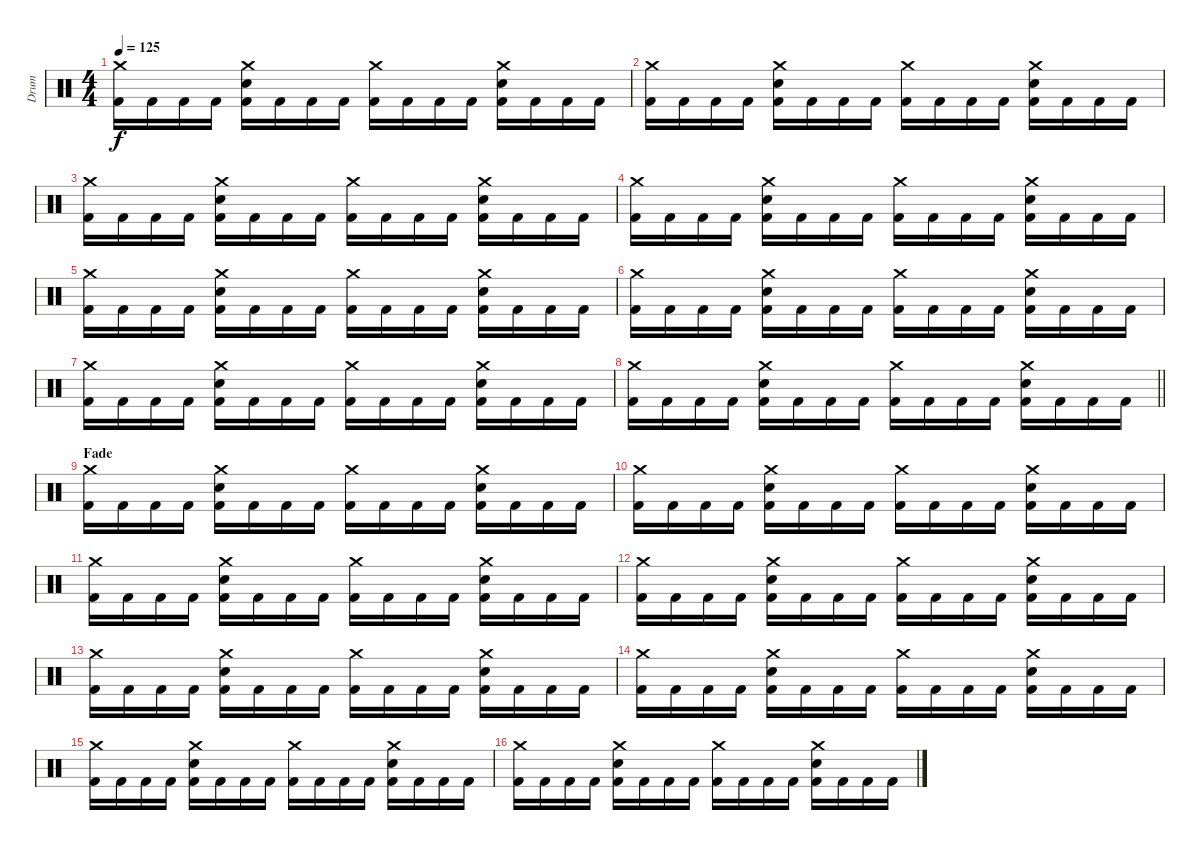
\track ("Drum" "Drum") {instrument percussion}
\staff {score}
\articulation defaults
\ts (4 4)
\tempo 125
\clef neutral
\ks c
("Crash medium (hit)" "Kick (hit) 2").16{dy f} "Kick (hit) 2".16 "Kick (hit) 2".16 "Kick (hit) 2".16 ("Crash medium (hit)" "Electric Snare (hit)" "Kick (hit) 2").16 "Kick (hit) 2".16 "Kick (hit) 2".16 "Kick (hit) 2".16 ("Crash medium (hit)" "Kick (hit) 2").16 "Kick (hit) 2".16 "Kick (hit) 2".16 "Kick (hit) 2".16 ("Crash medium (hit)" "Electric Snare (hit)" "Kick (hit) 2").16 "Kick (hit) 2".16 "Kick (hit) 2".16 "Kick (hit) 2".16 |
("Crash medium (hit)" "Kick (hit) 2").16 "Kick (hit) 2".16 "Kick (hit) 2".16 "Kick (hit) 2".16 ("Crash medium (hit)" "Electric Snare (hit)" "Kick (hit) 2").16 "Kick (hit) 2".16 "Kick (hit) 2".16 "Kick (hit) 2".16 ("Crash medium (hit)" "Kick (hit) 2").16 "Kick (hit) 2".16 "Kick (hit) 2".16 "Kick (hit) 2".16 ("Crash medium (hit)" "Electric Snare (hit)" "Kick (hit) 2").16 "Kick (hit) 2".16 "Kick (hit) 2".16 "Kick (hit) 2".16 |
("Crash medium (hit)" "Kick (hit) 2").16 "Kick (hit) 2".16 "Kick (hit) 2".16 "Kick (hit) 2".16 ("Crash medium (hit)" "Electric Snare (hit)" "Kick (hit) 2").16 "Kick (hit) 2".16 "Kick (hit) 2".16 "Kick (hit) 2".16 ("Crash medium (hit)" "Kick (hit) 2").16 "Kick (hit) 2".16 "Kick (hit) 2".16 "Kick (hit) 2".16 ("Crash medium (hit)" "Electric Snare (hit)" "Kick (hit) 2").16 "Kick (hit) 2".16 "Kick (hit) 2".16 "Kick (hit) 2".16 |
("Crash medium (hit)" "Kick (hit) 2").16 "Kick (hit) 2".16 "Kick (hit) 2".16 "Kick (hit) 2".16 ("Crash medium (hit)" "Electric Snare (hit)" "Kick (hit) 2").16 "Kick (hit) 2".16 "Kick (hit) 2".16 "Kick (hit) 2".16 ("Crash medium (hit)" "Kick (hit) 2").16 "Kick (hit) 2".16 "Kick (hit) 2".16 "Kick (hit) 2".16 ("Crash medium (hit)" "Electric Snare (hit)" "Kick (hit) 2").16 "Kick (hit) 2".16 "Kick (hit) 2".16 "Kick (hit) 2".16 |
("Crash medium (hit)" "Kick (hit) 2").16 "Kick (hit) 2".16 "Kick (hit) 2".16 "Kick (hit) 2".16 ("Crash medium (hit)" "Electric Snare (hit)" "Kick (hit) 2").16 "Kick (hit) 2".16 "Kick (hit) 2".16 "Kick (hit) 2".16 ("Crash medium (hit)" "Kick (hit) 2").16 "Kick (hit) 2".16 "Kick (hit) 2".16 "Kick (hit) 2".16 ("Crash medium (hit)" "Electric Snare (hit)" "Kick (hit) 2").16 "Kick (hit) 2".16 "Kick (hit) 2".16 "Kick (hit) 2".16 |
("Crash medium (hit)" "Kick (hit) 2").16 "Kick (hit) 2".16 "Kick (hit) 2".16 "Kick (hit) 2".16 ("Crash medium (hit)" "Electric Snare (hit)" "Kick (hit) 2").16 "Kick (hit) 2".16 "Kick (hit) 2".16 "Kick (hit) 2".16 ("Crash medium (hit)" "Kick (hit) 2").16 "Kick (hit) 2".16 "Kick (hit) 2".16 "Kick (hit) 2".16 ("Crash medium (hit)" "Electric Snare (hit)" "Kick (hit) 2").16 "Kick (hit) 2".16 "Kick (hit) 2".16 "Kick (hit) 2".16 |
("Crash medium (hit)" "Kick (hit) 2").16 "Kick (hit) 2".16 "Kick (hit) 2".16 "Kick (hit) 2".16 ("Crash medium (hit)" "Electric Snare (hit)" "Kick (hit) 2").16 "Kick (hit) 2".16 "Kick (hit) 2".16 "Kick (hit) 2".16 ("Crash medium (hit)" "Kick (hit) 2").16 "Kick (hit) 2".16 "Kick (hit) 2".16 "Kick (hit) 2".16 ("Crash medium (hit)" "Electric Snare (hit)" "Kick (hit) 2").16 "Kick (hit) 2".16 "Kick (hit) 2".16 "Kick (hit) 2".16 |
\barLineRight lightlight
("Crash medium (hit)" "Kick (hit) 2").16 "Kick (hit) 2".16 "Kick (hit) 2".16 "Kick (hit) 2".16 ("Crash medium (hit)" "Electric Snare (hit)" "Kick (hit) 2").16 "Kick (hit) 2".16 "Kick (hit) 2".16 "Kick (hit) 2".16 ("Crash medium (hit)" "Kick (hit) 2").16 "Kick (hit) 2".16 "Kick (hit) 2".16 "Kick (hit) 2".16 ("Crash medium (hit)" "Electric Snare (hit)" "Kick (hit) 2").16 "Kick (hit) 2".16 "Kick (hit) 2".16 "Kick (hit) 2".16 |
\section ("" "Fade")
("Crash medium (hit)" "Kick (hit) 2").16 "Kick (hit) 2".16 "Kick (hit) 2".16 "Kick (hit) 2".16 ("Crash medium (hit)" "Electric Snare (hit)" "Kick (hit) 2").16 "Kick (hit) 2".16 "Kick (hit) 2".16 "Kick (hit) 2".16 ("Crash medium (hit)" "Kick (hit) 2").16 "Kick (hit) 2".16 "Kick (hit) 2".16 "Kick (hit) 2".16 ("Crash medium (hit)" "Electric Snare (hit)" "Kick (hit) 2").16 "Kick (hit) 2".16 "Kick (hit) 2".16 "Kick (hit) 2".16 |
("Crash medium (hit)" "Kick (hit) 2").16 "Kick (hit) 2".16 "Kick (hit) 2".16 "Kick (hit) 2".16 ("Crash medium (hit)" "Electric Snare (hit)" "Kick (hit) 2").16 "Kick (hit) 2".16 "Kick (hit) 2".16 "Kick (hit) 2".16 ("Crash medium (hit)" "Kick (hit) 2").16 "Kick (hit) 2".16 "Kick (hit) 2".16 "Kick (hit) 2".16 ("Crash medium (hit)" "Electric Snare (hit)" "Kick (hit) 2").16 "Kick (hit) 2".16 "Kick (hit) 2".16 "Kick (hit) 2".16 |
("Crash medium (hit)" "Kick (hit) 2").16 "Kick (hit) 2".16 "Kick (hit) 2".16 "Kick (hit) 2".16 ("Crash medium (hit)" "Electric Snare (hit)" "Kick (hit) 2").16 "Kick (hit) 2".16 "Kick (hit) 2".16 "Kick (hit) 2".16 ("Crash medium (hit)" "Kick (hit) 2").16 "Kick (hit) 2".16 "Kick (hit) 2".16 "Kick (hit) 2".16 ("Crash medium (hit)" "Electric Snare (hit)" "Kick (hit) 2").16 "Kick (hit) 2".16 "Kick (hit) 2".16 "Kick (hit) 2".16 |
("Crash medium (hit)" "Kick (hit) 2").16 "Kick (hit) 2".16 "Kick (hit) 2".16 "Kick (hit) 2".16 ("Crash medium (hit)" "Electric Snare (hit)" "Kick (hit) 2").16 "Kick (hit) 2".16 "Kick (hit) 2".16 "Kick (hit) 2".16 ("Crash medium (hit)" "Kick (hit) 2").16 "Kick (hit) 2".16 "Kick (hit) 2".16 "Kick (hit) 2".16 ("Crash medium (hit)" "Electric Snare (hit)" "Kick (hit) 2").16 "Kick (hit) 2".16 "Kick (hit) 2".16 "Kick (hit) 2".16 |
("Crash medium (hit)" "Kick (hit) 2").16 "Kick (hit) 2".16 "Kick (hit) 2".16 "Kick (hit) 2".16 ("Crash medium (hit)" "Electric Snare (hit)" "Kick (hit) 2").16 "Kick (hit) 2".16 "Kick (hit) 2".16 "Kick (hit) 2".16 ("Crash medium (hit)" "Kick (hit) 2").16 "Kick (hit) 2".16 "Kick (hit) 2".16 "Kick (hit) 2".16 ("Crash medium (hit)" "Electric Snare (hit)" "Kick (hit) 2").16 "Kick (hit) 2".16 "Kick (hit) 2".16 "Kick (hit) 2".16 |
("Crash medium (hit)" "Kick (hit) 2").16 "Kick (hit) 2".16 "Kick (hit) 2".16 "Kick (hit) 2".16 ("Crash medium (hit)" "Electric Snare (hit)" "Kick (hit) 2").16 "Kick (hit) 2".16 "Kick (hit) 2".16 "Kick (hit) 2".16 ("Crash medium (hit)" "Kick (hit) 2").16 "Kick (hit) 2".16 "Kick (hit) 2".16 "Kick (hit) 2".16 ("Crash medium (hit)" "Electric Snare (hit)" "Kick (hit) 2").16 "Kick (hit) 2".16 "Kick (hit) 2".16 "Kick (hit) 2".16 |
("Crash medium (hit)" "Kick (hit) 2").16 "Kick (hit) 2".16 "Kick (hit) 2".16 "Kick (hit) 2".16 ("Crash medium (hit)" "Electric Snare (hit)" "Kick (hit) 2").16 "Kick (hit) 2".16 "Kick (hit) 2".16 "Kick (hit) 2".16 ("Crash medium (hit)" "Kick (hit) 2").16 "Kick (hit) 2".16 "Kick (hit) 2".16 "Kick (hit) 2".16 ("Crash medium (hit)" "Electric Snare (hit)" "Kick (hit) 2").16 "Kick (hit) 2".16 "Kick (hit) 2".16 "Kick (hit) 2".16 |
("Crash medium (hit)" "Kick (hit) 2").16 "Kick (hit) 2".16 "Kick (hit) 2".16 "Kick (hit) 2".16 ("Crash medium (hit)" "Electric Snare (hit)" "Kick (hit) 2").16 "Kick (hit) 2".16 "Kick (hit) 2".16 "Kick (hit) 2".16 ("Crash medium (hit)" "Kick (hit) 2").16 "Kick (hit) 2".16 "Kick (hit) 2".16 "Kick (hit) 2".16 ("Crash medium (hit)" "Electric Snare (hit)" "Kick (hit) 2").16 "Kick (hit) 2".16 "Kick (hit) 2".16 "Kick (hit) 2".16
